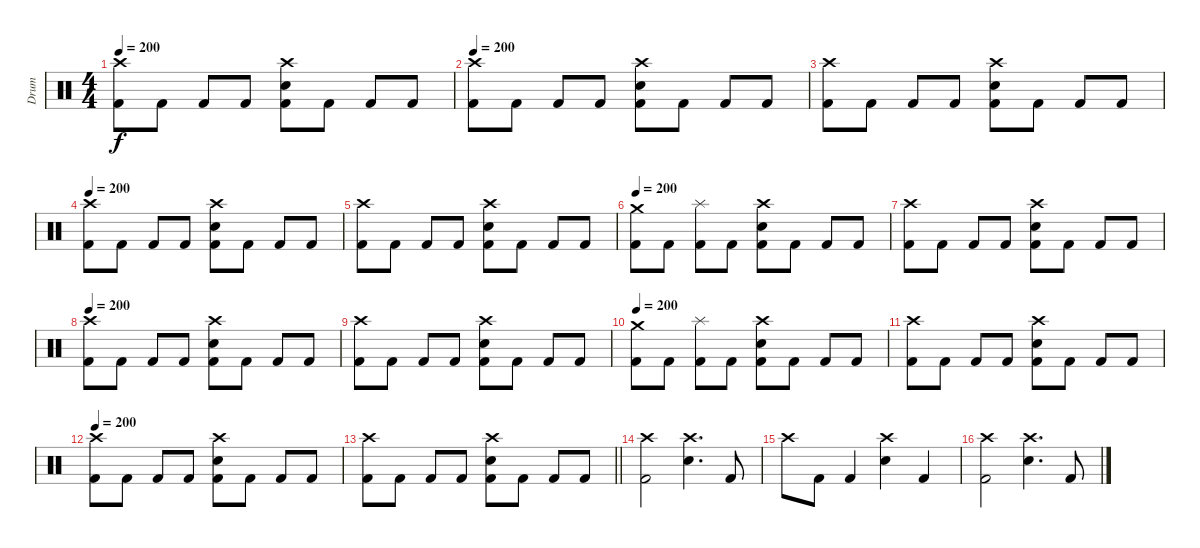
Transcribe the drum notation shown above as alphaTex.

\track ("Drum" "Drum") {instrument percussion}
\staff {score}
\articulation defaults
\ts (4 4)
\tempo 200
\clef neutral
\ks c
("Crash high (hit)" "Kick (hit) 2").8{dy f} "Kick (hit) 2".8 "Kick (hit) 2".8 "Kick (hit) 2".8 ("Crash high (hit)" "Electric Snare (hit)" "Kick (hit) 2").8 "Kick (hit) 2".8 "Kick (hit) 2".8 "Kick (hit) 2".8 |
\tempo 200
("Crash high (hit)" "Kick (hit) 2").8 "Kick (hit) 2".8 "Kick (hit) 2".8 "Kick (hit) 2".8 ("Crash high (hit)" "Electric Snare (hit)" "Kick (hit) 2").8 "Kick (hit) 2".8 "Kick (hit) 2".8 "Kick (hit) 2".8 |
("Crash high (hit)" "Kick (hit) 2").8 "Kick (hit) 2".8 "Kick (hit) 2".8 "Kick (hit) 2".8 ("Crash high (hit)" "Electric Snare (hit)" "Kick (hit) 2").8 "Kick (hit) 2".8 "Kick (hit) 2".8 "Kick (hit) 2".8 |
\tempo 200
("Crash high (hit)" "Kick (hit) 2").8 "Kick (hit) 2".8 "Kick (hit) 2".8 "Kick (hit) 2".8 ("Crash high (hit)" "Electric Snare (hit)" "Kick (hit) 2").8 "Kick (hit) 2".8 "Kick (hit) 2".8 "Kick (hit) 2".8 |
("Crash high (hit)" "Kick (hit) 2").8 "Kick (hit) 2".8 "Kick (hit) 2".8 "Kick (hit) 2".8 ("Crash high (hit)" "Electric Snare (hit)" "Kick (hit) 2").8 "Kick (hit) 2".8 "Kick (hit) 2".8 "Kick (hit) 2".8 |
\tempo 200
("Crash medium (hit)" "Kick (hit) 2").8 "Kick (hit) 2".8 ("Splash (hit)" "Kick (hit) 2").8 "Kick (hit) 2".8 ("Crash high (hit)" "Electric Snare (hit)" "Kick (hit) 2").8 "Kick (hit) 2".8 "Kick (hit) 2".8 "Kick (hit) 2".8 |
("Crash high (hit)" "Kick (hit) 2").8 "Kick (hit) 2".8 "Kick (hit) 2".8 "Kick (hit) 2".8 ("Crash high (hit)" "Electric Snare (hit)" "Kick (hit) 2").8 "Kick (hit) 2".8 "Kick (hit) 2".8 "Kick (hit) 2".8 |
\tempo 200
("Crash high (hit)" "Kick (hit) 2").8 "Kick (hit) 2".8 "Kick (hit) 2".8 "Kick (hit) 2".8 ("Crash high (hit)" "Electric Snare (hit)" "Kick (hit) 2").8 "Kick (hit) 2".8 "Kick (hit) 2".8 "Kick (hit) 2".8 |
("Crash high (hit)" "Kick (hit) 2").8 "Kick (hit) 2".8 "Kick (hit) 2".8 "Kick (hit) 2".8 ("Crash high (hit)" "Electric Snare (hit)" "Kick (hit) 2").8 "Kick (hit) 2".8 "Kick (hit) 2".8 "Kick (hit) 2".8 |
\tempo 200
("Crash medium (hit)" "Kick (hit) 2").8 "Kick (hit) 2".8 ("Splash (hit)" "Kick (hit) 2").8 "Kick (hit) 2".8 ("Crash high (hit)" "Electric Snare (hit)" "Kick (hit) 2").8 "Kick (hit) 2".8 "Kick (hit) 2".8 "Kick (hit) 2".8 |
("Crash high (hit)" "Kick (hit) 2").8 "Kick (hit) 2".8 "Kick (hit) 2".8 "Kick (hit) 2".8 ("Crash high (hit)" "Electric Snare (hit)" "Kick (hit) 2").8 "Kick (hit) 2".8 "Kick (hit) 2".8 "Kick (hit) 2".8 |
\tempo 200
("Crash high (hit)" "Kick (hit) 2").8 "Kick (hit) 2".8 "Kick (hit) 2".8 "Kick (hit) 2".8 ("Crash high (hit)" "Electric Snare (hit)" "Kick (hit) 2").8 "Kick (hit) 2".8 "Kick (hit) 2".8 "Kick (hit) 2".8 |
\barLineRight lightlight
("Crash high (hit)" "Kick (hit) 2").8 "Kick (hit) 2".8 "Kick (hit) 2".8 "Kick (hit) 2".8 ("Crash high (hit)" "Electric Snare (hit)" "Kick (hit) 2").8 "Kick (hit) 2".8 "Kick (hit) 2".8 "Kick (hit) 2".8 |
("Crash high (hit)" "Kick (hit) 2").2 ("Crash high (hit)" "Electric Snare (hit)").4{d} "Kick (hit) 2".8 |
"Crash high (hit)".8 "Kick (hit) 2".8 "Kick (hit) 2".4 ("Crash high (hit)" "Electric Snare (hit)").4 "Kick (hit) 2".4 |
("Crash high (hit)" "Kick (hit) 2").2 ("Crash high (hit)" "Electric Snare (hit)").4{d} "Kick (hit) 2".8
